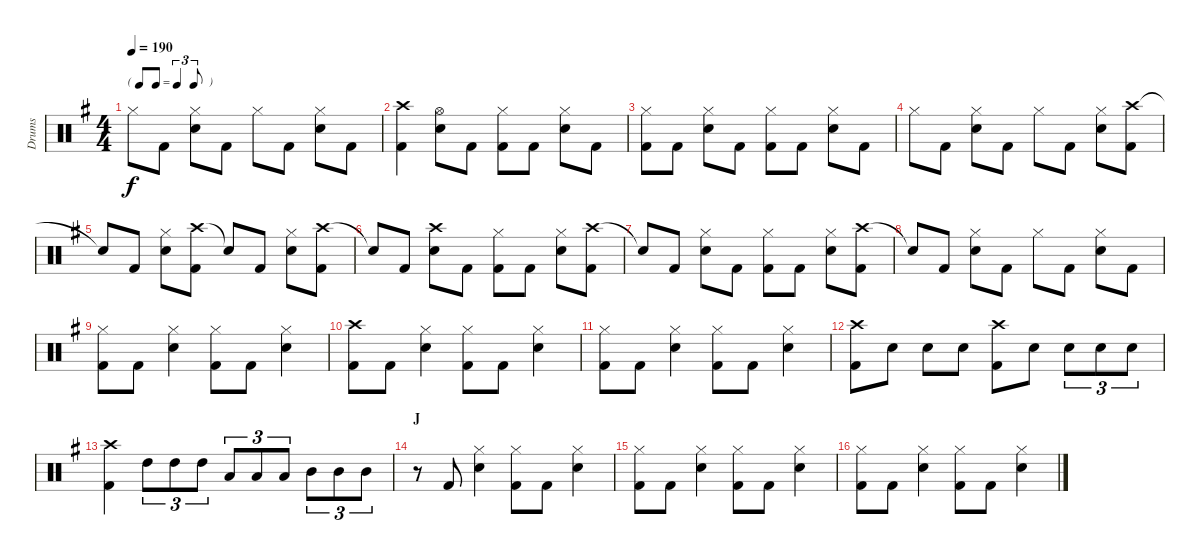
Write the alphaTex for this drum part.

\track ("Drums" "Drums") {instrument percussion}
\staff {score}
\articulation defaults
\ts (4 4)
\tf triplet8th
\tempo 190
\clef neutral
\ks g "Hi-Hat (closed)".8{dy f} "Kick (hit) 2".8
("Hi-Hat (closed)" "Snare (hit) 2").8 "Kick (hit) 2".8 "Hi-Hat (closed)".8 "Kick (hit) 2".8 ("Hi-Hat (closed)" "Snare (hit) 2").8 "Kick (hit) 2".8 |
("Crash high (hit)" "Kick (hit) 2").4 ("Hi-Hat (open)" "Snare (hit) 2").8 "Kick (hit) 2".8 ("Hi-Hat (closed)" "Kick (hit) 2").8 "Kick (hit) 2".8 ("Hi-Hat (closed)" "Snare (hit) 2").8 "Kick (hit) 2".8 |
("Hi-Hat (closed)" "Kick (hit) 2").8 "Kick (hit) 2".8 ("Hi-Hat (closed)" "Snare (hit) 2").8 "Kick (hit) 2".8 ("Hi-Hat (closed)" "Kick (hit) 2").8 "Kick (hit) 2".8 ("Hi-Hat (closed)" "Snare (hit) 2").8 "Kick (hit) 2".8 |
"Hi-Hat (closed)".8 "Kick (hit) 2".8 ("Hi-Hat (closed)" "Snare (hit) 2").8 "Kick (hit) 2".8 "Hi-Hat (closed)".8 "Kick (hit) 2".8 ("Hi-Hat (closed)" "Snare (hit) 2").8 ("Crash high (hit)" "Kick (hit) 2").8 |
"Snare (hit)"{t}.8 "Kick (hit) 2".8 ("Hi-Hat (closed)" "Snare (hit) 2").8 ("Crash high (hit)" "Kick (hit) 2").8 "Snare (hit)"{t}.8 "Kick (hit) 2".8 ("Hi-Hat (closed)" "Snare (hit) 2").8 ("Crash high (hit)" "Kick (hit) 2").8 |
"Snare (hit)"{t}.8 "Kick (hit) 2".8 ("Crash high (hit)" "Snare (hit) 2").8 "Kick (hit) 2".8 ("Hi-Hat (closed)" "Kick (hit) 2").8 "Kick (hit) 2".8 ("Hi-Hat (closed)" "Snare (hit) 2").8 ("Crash high (hit)" "Kick (hit) 2").8 |
"Snare (hit)"{t}.8 "Kick (hit) 2".8 ("Hi-Hat (closed)" "Snare (hit) 2").8 "Kick (hit) 2".8 ("Hi-Hat (closed)" "Kick (hit) 2").8 "Kick (hit) 2".8 ("Hi-Hat (closed)" "Snare (hit) 2").8 ("Crash high (hit)" "Kick (hit) 2").8 |
"Snare (hit)"{t}.8 "Kick (hit) 2".8 ("Hi-Hat (closed)" "Snare (hit) 2").8 "Kick (hit) 2".8 "Hi-Hat (closed)".8 "Kick (hit) 2".8 ("Hi-Hat (closed)" "Snare (hit) 2").8 "Kick (hit) 2".8 |
("Hi-Hat (closed)" "Kick (hit) 2").8 "Kick (hit) 2".8 ("Hi-Hat (closed)" "Snare (hit) 2").4 ("Hi-Hat (closed)" "Kick (hit) 2").8 "Kick (hit) 2".8 ("Hi-Hat (closed)" "Snare (hit) 2").4 |
("Crash high (hit)" "Kick (hit) 2").8 "Kick (hit) 2".8 ("Hi-Hat (closed)" "Snare (hit) 2").4 ("Hi-Hat (closed)" "Kick (hit) 2").8 "Kick (hit) 2".8 ("Hi-Hat (closed)" "Snare (hit) 2").4 |
("Hi-Hat (closed)" "Kick (hit) 2").8 "Kick (hit) 2".8 ("Hi-Hat (closed)" "Snare (hit) 2").4 ("Hi-Hat (closed)" "Kick (hit) 2").8 "Kick (hit) 2".8 ("Hi-Hat (closed)" "Snare (hit) 2").4 |
("Crash high (hit)" "Kick (hit) 2").8 "Snare (hit) 2".8 "Snare (hit) 2".8 "Snare (hit) 2".8 ("Crash high (hit)" "Kick (hit) 2").8 "Snare (hit) 2".8 "Snare (hit) 2".8{tu (3 2)} "Snare (hit) 2".8{tu (3 2)} "Snare (hit) 2".8{tu (3 2)} |
("Crash high (hit)" "Kick (hit) 2").4 "High Tom (hit)".8{tu (3 2)} "High Tom (hit)".8{tu (3 2)} "High Tom (hit)".8{tu (3 2)} "Low Tom (hit)".8{tu (3 2)} "Low Tom (hit)".8{tu (3 2)} "Low Tom (hit)".8{tu (3 2)} "Mid Tom (hit)".8{tu (3 2)} "Mid Tom (hit)".8{tu (3 2)} "Mid Tom (hit)".8{tu (3 2)} |
\section ("" "J")
r.8 "Kick (hit) 2".8 ("Hi-Hat (closed)" "Snare (hit) 2").4 ("Hi-Hat (closed)" "Kick (hit) 2").8 "Kick (hit) 2".8 ("Hi-Hat (closed)" "Snare (hit) 2").4 |
("Hi-Hat (closed)" "Kick (hit) 2").8 "Kick (hit) 2".8 ("Hi-Hat (closed)" "Snare (hit) 2").4 ("Hi-Hat (closed)" "Kick (hit) 2").8 "Kick (hit) 2".8 ("Hi-Hat (closed)" "Snare (hit) 2").4 |
("Hi-Hat (closed)" "Kick (hit) 2").8 "Kick (hit) 2".8 ("Hi-Hat (closed)" "Snare (hit) 2").4 ("Hi-Hat (closed)" "Kick (hit) 2").8 "Kick (hit) 2".8 ("Hi-Hat (closed)" "Snare (hit) 2").4
